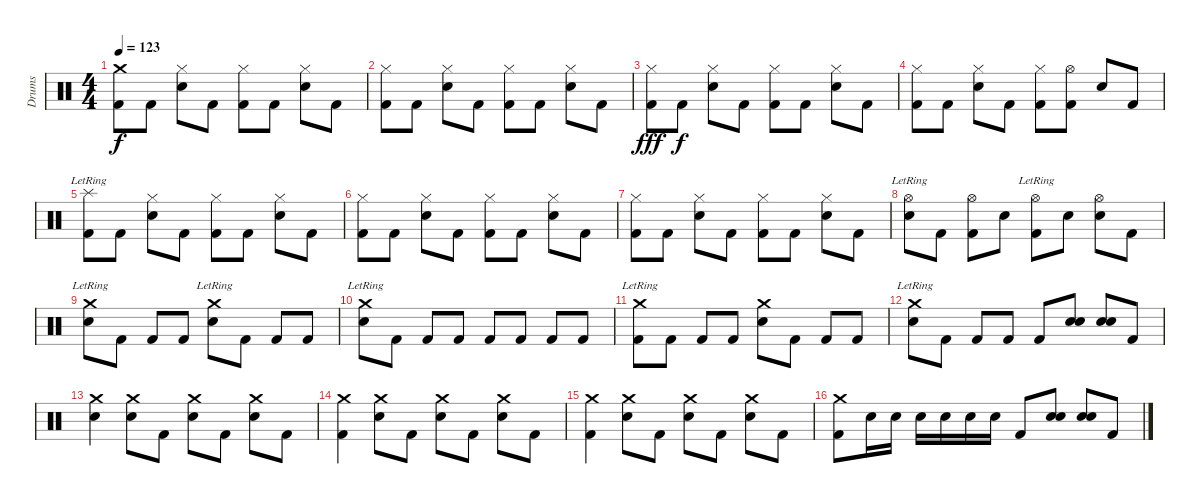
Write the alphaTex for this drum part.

\track ("Drums" "Drums") {instrument percussion}
\staff {score}
\articulation defaults
\ts (4 4)
\tempo 123
\clef neutral
\ks c
("Crash medium (hit)" "Kick (hit) 2").8{dy f} "Kick (hit) 2".8 ("Hi-Hat (closed)" "Electric Snare (hit)").8 "Kick (hit) 2".8 ("Hi-Hat (closed)" "Kick (hit) 2").8 "Kick (hit) 2".8 ("Hi-Hat (closed)" "Electric Snare (hit)").8 "Kick (hit) 2".8 |
("Hi-Hat (closed)" "Kick (hit) 2").8 "Kick (hit) 2".8 ("Hi-Hat (closed)" "Electric Snare (hit)").8 "Kick (hit) 2".8 ("Hi-Hat (closed)" "Kick (hit) 2").8 "Kick (hit) 2".8 ("Hi-Hat (closed)" "Electric Snare (hit)").8 "Kick (hit) 2".8 |
("Hi-Hat (closed)" "Kick (hit) 2").8{dy fff} "Kick (hit) 2".8{dy f} ("Hi-Hat (closed)" "Electric Snare (hit)").8 "Kick (hit) 2".8 ("Hi-Hat (closed)" "Kick (hit) 2").8 "Kick (hit) 2".8 ("Hi-Hat (closed)" "Electric Snare (hit)").8 "Kick (hit) 2".8 |
("Hi-Hat (closed)" "Kick (hit) 2").8 "Kick (hit) 2".8 ("Hi-Hat (closed)" "Electric Snare (hit)").8 "Kick (hit) 2".8 ("Hi-Hat (closed)" "Kick (hit) 2").8 ("Hi-Hat (open)" "Kick (hit) 2").8 "Electric Snare (hit)".8 "Kick (hit) 2".8 |
("Splash (hit)"{lr} "Kick (hit) 2").8 "Kick (hit) 2".8 ("Hi-Hat (closed)" "Electric Snare (hit)").8 "Kick (hit) 2".8 ("Hi-Hat (closed)" "Kick (hit) 2").8 "Kick (hit) 2".8 ("Hi-Hat (closed)" "Electric Snare (hit)").8 "Kick (hit) 2".8 |
("Hi-Hat (closed)" "Kick (hit) 2").8 "Kick (hit) 2".8 ("Hi-Hat (closed)" "Electric Snare (hit)").8 "Kick (hit) 2".8 ("Hi-Hat (closed)" "Kick (hit) 2").8 "Kick (hit) 2".8 ("Hi-Hat (closed)" "Electric Snare (hit)").8 "Kick (hit) 2".8 |
("Hi-Hat (closed)" "Kick (hit) 2").8 "Kick (hit) 2".8 ("Hi-Hat (closed)" "Electric Snare (hit)").8 "Kick (hit) 2".8 ("Hi-Hat (closed)" "Kick (hit) 2").8 "Kick (hit) 2".8 ("Hi-Hat (closed)" "Electric Snare (hit)").8 "Kick (hit) 2".8 |
("Hi-Hat (open)"{lr} "Electric Snare (hit)").8 "Kick (hit) 2".8 ("Hi-Hat (open)" "Kick (hit) 2").8 "Electric Snare (hit)".8 ("Hi-Hat (open)"{lr} "Kick (hit) 2").8 "Electric Snare (hit)".8 ("Hi-Hat (open)" "Electric Snare (hit)").8 "Kick (hit) 2".8 |
("Crash medium (hit)"{lr} "Electric Snare (hit)").8 "Kick (hit) 2".8 "Kick (hit) 2".8 "Kick (hit) 2".8 ("Crash medium (hit)"{lr} "Electric Snare (hit)").8 "Kick (hit) 2".8 "Kick (hit) 2".8 "Kick (hit) 2".8 |
("Crash medium (hit)"{lr} "Electric Snare (hit)").8 "Kick (hit) 2".8 "Kick (hit) 2".8 "Kick (hit) 2".8 "Kick (hit) 2".8 "Kick (hit) 2".8 "Kick (hit) 2".8 "Kick (hit) 2".8 |
("Crash medium (hit)"{lr} "Kick (hit) 2").8 "Kick (hit) 2".8 "Kick (hit) 2".8 "Kick (hit) 2".8 ("Crash medium (hit)" "Electric Snare (hit)").8 "Kick (hit) 2".8 "Kick (hit) 2".8 "Kick (hit) 2".8 |
("Crash medium (hit)"{lr} "Electric Snare (hit)").8 "Kick (hit) 2".8 "Kick (hit) 2".8 "Kick (hit) 2".8 "Kick (hit) 2".8 ("Electric Snare (hit)" "Electric Snare (hit)").8 ("Electric Snare (hit)" "Electric Snare (hit)").8 "Kick (hit) 2".8 |
("Crash medium (hit)" "Electric Snare (hit)").4 ("Crash medium (hit)" "Electric Snare (hit)").8 "Kick (hit) 2".8 ("Crash medium (hit)" "Electric Snare (hit)").8 "Kick (hit) 2".8 ("Crash medium (hit)" "Electric Snare (hit)").8 "Kick (hit) 2".8 |
("Crash medium (hit)" "Kick (hit) 2").4 ("Crash medium (hit)" "Electric Snare (hit)").8 "Kick (hit) 2".8 ("Crash medium (hit)" "Electric Snare (hit)").8 "Kick (hit) 2".8 ("Crash medium (hit)" "Electric Snare (hit)").8 "Kick (hit) 2".8 |
("Crash medium (hit)" "Kick (hit) 2").4 ("Crash medium (hit)" "Electric Snare (hit)").8 "Kick (hit) 2".8 ("Crash medium (hit)" "Electric Snare (hit)").8 "Kick (hit) 2".8 ("Crash medium (hit)" "Electric Snare (hit)").8 "Kick (hit) 2".8 |
("Crash medium (hit)" "Kick (hit) 2").8 "Electric Snare (hit)".16 "Electric Snare (hit)".16 "Electric Snare (hit)".16 "Electric Snare (hit)".16 "Electric Snare (hit)".16 "Electric Snare (hit)".16 "Kick (hit) 2".8 ("Electric Snare (hit)" "Electric Snare (hit)").8 ("Electric Snare (hit)" "Electric Snare (hit)").8 "Kick (hit) 2".8
